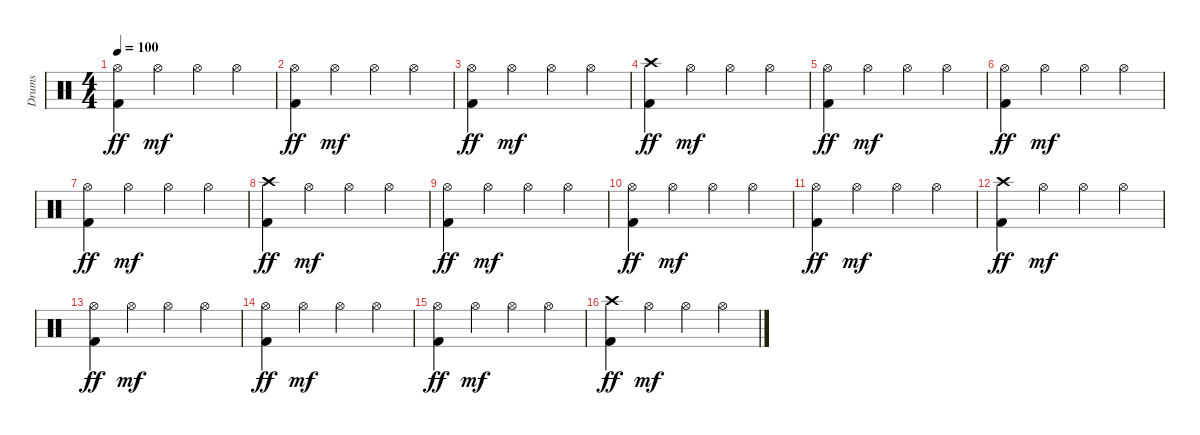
\track ("Drums" "Drums") {instrument percussion}
\staff {score}
\articulation defaults
\ts (4 4)
\tempo 100
\clef neutral
\ks c
("Hi-Hat (open)" "Kick (hit) 2").4{dy ff} "Hi-Hat (open)".4{dy mf} "Hi-Hat (open)".4 "Hi-Hat (open)".4 |
("Hi-Hat (open)" "Kick (hit) 2").4{dy ff} "Hi-Hat (open)".4{dy mf} "Hi-Hat (open)".4 "Hi-Hat (open)".4 |
("Hi-Hat (open)" "Kick (hit) 2").4{dy ff} "Hi-Hat (open)".4{dy mf} "Hi-Hat (open)".4 "Hi-Hat (open)".4 |
("Crash high (hit)" "Kick (hit) 2").4{dy ff} "Hi-Hat (open)".4{dy mf} "Hi-Hat (open)".4 "Hi-Hat (open)".4 |
("Hi-Hat (open)" "Kick (hit) 2").4{dy ff} "Hi-Hat (open)".4{dy mf} "Hi-Hat (open)".4 "Hi-Hat (open)".4 |
("Hi-Hat (open)" "Kick (hit) 2").4{dy ff} "Hi-Hat (open)".4{dy mf} "Hi-Hat (open)".4 "Hi-Hat (open)".4 |
("Hi-Hat (open)" "Kick (hit) 2").4{dy ff} "Hi-Hat (open)".4{dy mf} "Hi-Hat (open)".4 "Hi-Hat (open)".4 |
("Crash high (hit)" "Kick (hit) 2").4{dy ff} "Hi-Hat (open)".4{dy mf} "Hi-Hat (open)".4 "Hi-Hat (open)".4 |
("Hi-Hat (open)" "Kick (hit) 2").4{dy ff} "Hi-Hat (open)".4{dy mf} "Hi-Hat (open)".4 "Hi-Hat (open)".4 |
("Hi-Hat (open)" "Kick (hit) 2").4{dy ff} "Hi-Hat (open)".4{dy mf} "Hi-Hat (open)".4 "Hi-Hat (open)".4 |
("Hi-Hat (open)" "Kick (hit) 2").4{dy ff} "Hi-Hat (open)".4{dy mf} "Hi-Hat (open)".4 "Hi-Hat (open)".4 |
("Crash high (hit)" "Kick (hit) 2").4{dy ff} "Hi-Hat (open)".4{dy mf} "Hi-Hat (open)".4 "Hi-Hat (open)".4 |
("Hi-Hat (open)" "Kick (hit) 2").4{dy ff} "Hi-Hat (open)".4{dy mf} "Hi-Hat (open)".4 "Hi-Hat (open)".4 |
("Hi-Hat (open)" "Kick (hit) 2").4{dy ff} "Hi-Hat (open)".4{dy mf} "Hi-Hat (open)".4 "Hi-Hat (open)".4 |
("Hi-Hat (open)" "Kick (hit) 2").4{dy ff} "Hi-Hat (open)".4{dy mf} "Hi-Hat (open)".4 "Hi-Hat (open)".4 |
("Crash high (hit)" "Kick (hit) 2").4{dy ff} "Hi-Hat (open)".4{dy mf} "Hi-Hat (open)".4 "Hi-Hat (open)".4
